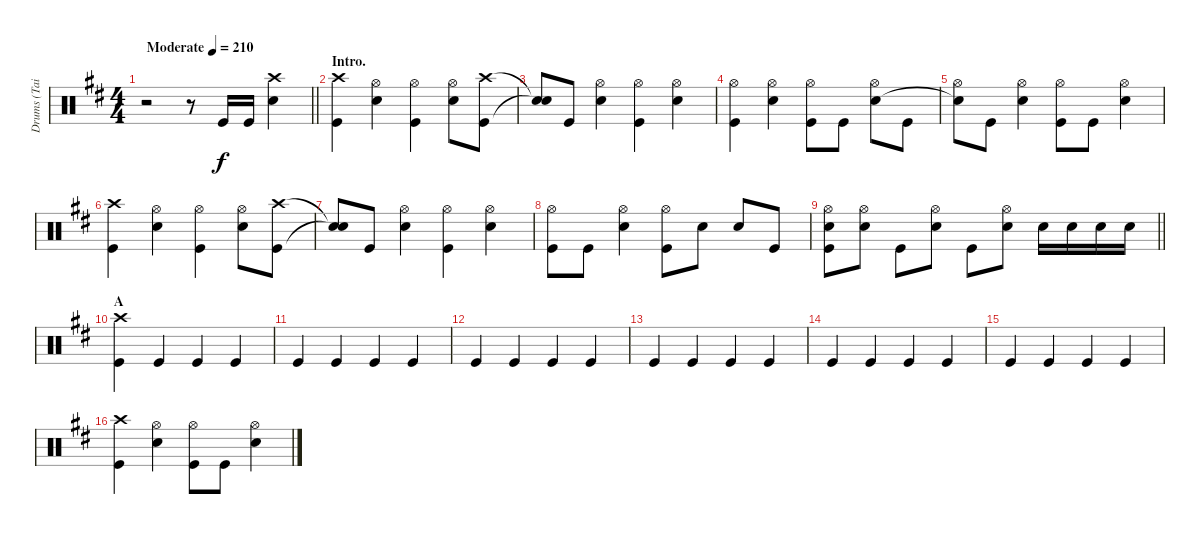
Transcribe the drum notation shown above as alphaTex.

\track ("Drums (Tainaka Ritsu)" "Drums (Tai") {instrument percussion}
\staff {score}
\articulation defaults
\ts (4 4)
\tempo (210 "Moderate")
\clef neutral
\barLineRight lightlight
\ks d
r.2{dy f} r.8 "Kick (hit)".16 "Kick (hit)".16 ("Crash high (hit)" "Snare (hit) 2").4 |
\section ("" "Intro.")
("Crash high (hit)" "Kick (hit)").4 ("Hi-Hat (open)" "Snare (hit) 2").4 ("Hi-Hat (open)" "Kick (hit)").4 ("Hi-Hat (open)" "Snare (hit) 2").8 ("Crash high (hit)" "Kick (hit)").8 |
("Snare (hit)"{t} "Snare (hit)"{t}).8 "Kick (hit)".8 ("Hi-Hat (open)" "Snare (hit) 2").4 ("Hi-Hat (open)" "Kick (hit)").4 ("Hi-Hat (open)" "Snare (hit) 2").4 |
("Hi-Hat (open)" "Kick (hit)").4 ("Hi-Hat (open)" "Snare (hit) 2").4 ("Hi-Hat (open)" "Kick (hit)").8 "Kick (hit)".8 ("Hi-Hat (open)" "Snare (hit) 2").8 "Kick (hit)".8 |
("Hi-Hat (open)" "Snare (hit)"{t}).8 "Kick (hit)".8 ("Hi-Hat (open)" "Snare (hit) 2").4 ("Hi-Hat (open)" "Kick (hit)").8 "Kick (hit)".8 ("Hi-Hat (open)" "Snare (hit) 2").4 |
("Crash high (hit)" "Kick (hit)").4 ("Hi-Hat (open)" "Snare (hit) 2").4 ("Hi-Hat (open)" "Kick (hit)").4 ("Hi-Hat (open)" "Snare (hit) 2").8 ("Crash high (hit)" "Kick (hit)").8 |
("Snare (hit)"{t} "Snare (hit)"{t}).8 "Kick (hit)".8 ("Hi-Hat (open)" "Snare (hit) 2").4 ("Hi-Hat (open)" "Kick (hit)").4 ("Hi-Hat (open)" "Snare (hit) 2").4 |
("Hi-Hat (open)" "Kick (hit)").8 "Kick (hit)".8 ("Hi-Hat (open)" "Snare (hit) 2").4 ("Hi-Hat (open)" "Kick (hit)").8 "Snare (hit) 2".8 "Snare (hit) 2".8 "Kick (hit)".8 |
\barLineRight lightlight
("Hi-Hat (open)" "Snare (hit) 2" "Kick (hit)").8 ("Hi-Hat (open)" "Snare (hit) 2").8 "Kick (hit)".8 ("Hi-Hat (open)" "Snare (hit) 2").8 "Kick (hit)".8 ("Hi-Hat (open)" "Snare (hit) 2").8 "Snare (hit) 2".16 "Snare (hit) 2".16 "Snare (hit) 2".16 "Snare (hit) 2".16 |
\section ("" "A")
("Crash high (hit)" "Kick (hit)").4 "Kick (hit)".4 "Kick (hit)".4 "Kick (hit)".4 |
"Kick (hit)".4 "Kick (hit)".4 "Kick (hit)".4 "Kick (hit)".4 |
"Kick (hit)".4 "Kick (hit)".4 "Kick (hit)".4 "Kick (hit)".4 |
"Kick (hit)".4 "Kick (hit)".4 "Kick (hit)".4 "Kick (hit)".4 |
"Kick (hit)".4 "Kick (hit)".4 "Kick (hit)".4 "Kick (hit)".4 |
"Kick (hit)".4 "Kick (hit)".4 "Kick (hit)".4 "Kick (hit)".4 |
("Crash high (hit)" "Kick (hit)").4 ("Hi-Hat (open)" "Snare (hit) 2").4 ("Hi-Hat (open)" "Kick (hit)").8 "Kick (hit)".8 ("Hi-Hat (open)" "Snare (hit) 2").4
